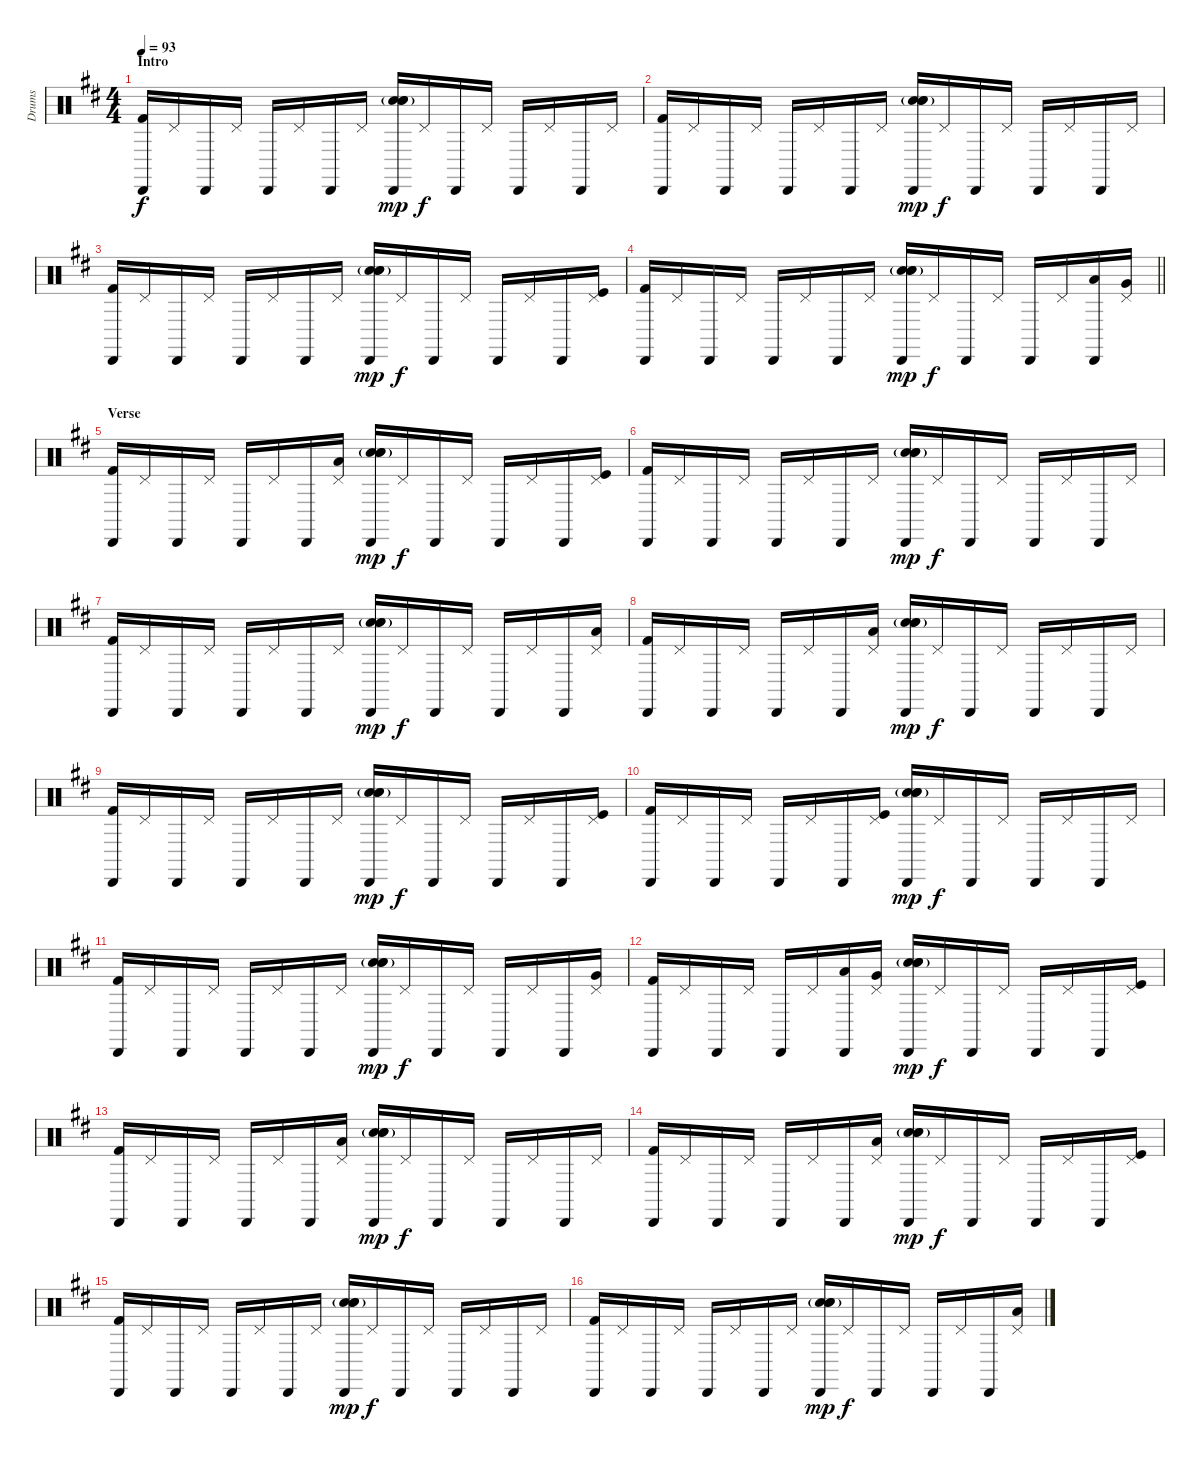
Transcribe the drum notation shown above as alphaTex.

\track ("Drums" "Drums") {instrument percussion}
\staff {score}
\articulation defaults
\ts (4 4)
\section ("" "Intro")
\tempo 93
\clef neutral
\ks d
("Cabasa (hit)" "Kick (hit) 2").16{dy f} "Pedal Hi-Hat (hit)".16 "Cabasa (hit)".16 "Pedal Hi-Hat (hit)".16 "Cabasa (hit)".16 "Pedal Hi-Hat (hit)".16 "Cabasa (hit)".16 "Pedal Hi-Hat (hit)".16 ("Cabasa (hit)" "Snare (hit) 2"{g} "Electric Snare (hit)"{g} "Electric Snare (hit)").16{dy mp} "Pedal Hi-Hat (hit)".16{dy f} "Cabasa (hit)".16 "Pedal Hi-Hat (hit)".16 "Cabasa (hit)".16 "Pedal Hi-Hat (hit)".16 "Cabasa (hit)".16 "Pedal Hi-Hat (hit)".16 |
("Cabasa (hit)" "Kick (hit) 2").16 "Pedal Hi-Hat (hit)".16 "Cabasa (hit)".16 "Pedal Hi-Hat (hit)".16 "Cabasa (hit)".16 "Pedal Hi-Hat (hit)".16 "Cabasa (hit)".16 "Pedal Hi-Hat (hit)".16 ("Cabasa (hit)" "Snare (hit) 2"{g} "Electric Snare (hit)"{g} "Electric Snare (hit)").16{dy mp} "Pedal Hi-Hat (hit)".16{dy f} "Cabasa (hit)".16 "Pedal Hi-Hat (hit)".16 "Cabasa (hit)".16 "Pedal Hi-Hat (hit)".16 "Cabasa (hit)".16 "Pedal Hi-Hat (hit)".16 |
("Cabasa (hit)" "Kick (hit) 2").16 "Pedal Hi-Hat (hit)".16 "Cabasa (hit)".16 "Pedal Hi-Hat (hit)".16 "Cabasa (hit)".16 "Pedal Hi-Hat (hit)".16 "Cabasa (hit)".16 "Pedal Hi-Hat (hit)".16 ("Cabasa (hit)" "Snare (hit) 2"{g} "Electric Snare (hit)"{g} "Electric Snare (hit)").16{dy mp} "Pedal Hi-Hat (hit)".16{dy f} "Cabasa (hit)".16 "Pedal Hi-Hat (hit)".16 "Cabasa (hit)".16 "Pedal Hi-Hat (hit)".16 "Cabasa (hit)".16 ("Pedal Hi-Hat (hit)" "Kick (hit)").16 |
\barLineRight lightlight
("Cabasa (hit)" "Kick (hit) 2").16 "Pedal Hi-Hat (hit)".16 "Cabasa (hit)".16 "Pedal Hi-Hat (hit)".16 "Cabasa (hit)".16 "Pedal Hi-Hat (hit)".16 "Cabasa (hit)".16 "Pedal Hi-Hat (hit)".16 ("Cabasa (hit)" "Snare (hit) 2"{g} "Electric Snare (hit)"{g} "Electric Snare (hit)").16{dy mp} "Pedal Hi-Hat (hit)".16{dy f} "Cabasa (hit)".16 "Pedal Hi-Hat (hit)".16 "Cabasa (hit)".16 "Pedal Hi-Hat (hit)".16 ("Cabasa (hit)" "Low Tom (hit)").16 ("Pedal Hi-Hat (hit)" "Very Low Tom (hit)").16 |
\section ("" "Verse")
("Cabasa (hit)" "Kick (hit) 2").16 "Pedal Hi-Hat (hit)".16 "Cabasa (hit)".16 "Pedal Hi-Hat (hit)".16 "Cabasa (hit)".16 "Pedal Hi-Hat (hit)".16 "Cabasa (hit)".16 ("Pedal Hi-Hat (hit)" "Low Tom (hit)").16 ("Cabasa (hit)" "Snare (hit) 2"{g} "Electric Snare (hit)"{g} "Electric Snare (hit)").16{dy mp} "Pedal Hi-Hat (hit)".16{dy f} "Cabasa (hit)".16 "Pedal Hi-Hat (hit)".16 "Cabasa (hit)".16 "Pedal Hi-Hat (hit)".16 "Cabasa (hit)".16 ("Pedal Hi-Hat (hit)" "Kick (hit)").16 |
("Cabasa (hit)" "Kick (hit) 2").16 "Pedal Hi-Hat (hit)".16 "Cabasa (hit)".16 "Pedal Hi-Hat (hit)".16 "Cabasa (hit)".16 "Pedal Hi-Hat (hit)".16 "Cabasa (hit)".16 "Pedal Hi-Hat (hit)".16 ("Cabasa (hit)" "Snare (hit) 2"{g} "Electric Snare (hit)"{g} "Electric Snare (hit)").16{dy mp} "Pedal Hi-Hat (hit)".16{dy f} "Cabasa (hit)".16 "Pedal Hi-Hat (hit)".16 "Cabasa (hit)".16 "Pedal Hi-Hat (hit)".16 "Cabasa (hit)".16 "Pedal Hi-Hat (hit)".16 |
("Cabasa (hit)" "Kick (hit) 2").16 "Pedal Hi-Hat (hit)".16 "Cabasa (hit)".16 "Pedal Hi-Hat (hit)".16 "Cabasa (hit)".16 "Pedal Hi-Hat (hit)".16 "Cabasa (hit)".16 "Pedal Hi-Hat (hit)".16 ("Cabasa (hit)" "Snare (hit) 2"{g} "Electric Snare (hit)"{g} "Electric Snare (hit)").16{dy mp} "Pedal Hi-Hat (hit)".16{dy f} "Cabasa (hit)".16 "Pedal Hi-Hat (hit)".16 "Cabasa (hit)".16 "Pedal Hi-Hat (hit)".16 "Cabasa (hit)".16 ("Pedal Hi-Hat (hit)" "Low Tom (hit)").16 |
("Cabasa (hit)" "Kick (hit) 2").16 "Pedal Hi-Hat (hit)".16 "Cabasa (hit)".16 "Pedal Hi-Hat (hit)".16 "Cabasa (hit)".16 "Pedal Hi-Hat (hit)".16 "Cabasa (hit)".16 ("Pedal Hi-Hat (hit)" "Low Tom (hit)").16 ("Cabasa (hit)" "Snare (hit) 2"{g} "Electric Snare (hit)"{g} "Electric Snare (hit)").16{dy mp} "Pedal Hi-Hat (hit)".16{dy f} "Cabasa (hit)".16 "Pedal Hi-Hat (hit)".16 "Cabasa (hit)".16 "Pedal Hi-Hat (hit)".16 "Cabasa (hit)".16 "Pedal Hi-Hat (hit)".16 |
("Cabasa (hit)" "Kick (hit) 2").16 "Pedal Hi-Hat (hit)".16 "Cabasa (hit)".16 "Pedal Hi-Hat (hit)".16 "Cabasa (hit)".16 "Pedal Hi-Hat (hit)".16 "Cabasa (hit)".16 "Pedal Hi-Hat (hit)".16 ("Cabasa (hit)" "Snare (hit) 2"{g} "Electric Snare (hit)"{g} "Electric Snare (hit)").16{dy mp} "Pedal Hi-Hat (hit)".16{dy f} "Cabasa (hit)".16 "Pedal Hi-Hat (hit)".16 "Cabasa (hit)".16 "Pedal Hi-Hat (hit)".16 "Cabasa (hit)".16 ("Pedal Hi-Hat (hit)" "Kick (hit)").16 |
("Cabasa (hit)" "Kick (hit) 2").16 "Pedal Hi-Hat (hit)".16 "Cabasa (hit)".16 "Pedal Hi-Hat (hit)".16 "Cabasa (hit)".16 "Pedal Hi-Hat (hit)".16 "Cabasa (hit)".16 ("Pedal Hi-Hat (hit)" "Kick (hit)").16 ("Cabasa (hit)" "Snare (hit) 2"{g} "Electric Snare (hit)"{g} "Electric Snare (hit)").16{dy mp} "Pedal Hi-Hat (hit)".16{dy f} "Cabasa (hit)".16 "Pedal Hi-Hat (hit)".16 "Cabasa (hit)".16 "Pedal Hi-Hat (hit)".16 "Cabasa (hit)".16 "Pedal Hi-Hat (hit)".16 |
("Cabasa (hit)" "Kick (hit) 2").16 "Pedal Hi-Hat (hit)".16 "Cabasa (hit)".16 "Pedal Hi-Hat (hit)".16 "Cabasa (hit)".16 "Pedal Hi-Hat (hit)".16 "Cabasa (hit)".16 "Pedal Hi-Hat (hit)".16 ("Cabasa (hit)" "Snare (hit) 2"{g} "Electric Snare (hit)"{g} "Electric Snare (hit)").16{dy mp} "Pedal Hi-Hat (hit)".16{dy f} "Cabasa (hit)".16 "Pedal Hi-Hat (hit)".16 "Cabasa (hit)".16 "Pedal Hi-Hat (hit)".16 "Cabasa (hit)".16 ("Pedal Hi-Hat (hit)" "Very Low Tom (hit)").16 |
("Cabasa (hit)" "Kick (hit) 2").16 "Pedal Hi-Hat (hit)".16 "Cabasa (hit)".16 "Pedal Hi-Hat (hit)".16 "Cabasa (hit)".16 "Pedal Hi-Hat (hit)".16 ("Cabasa (hit)" "Low Tom (hit)").16 ("Pedal Hi-Hat (hit)" "Very Low Tom (hit)").16 ("Cabasa (hit)" "Snare (hit) 2"{g} "Electric Snare (hit)"{g} "Electric Snare (hit)").16{dy mp} "Pedal Hi-Hat (hit)".16{dy f} "Cabasa (hit)".16 "Pedal Hi-Hat (hit)".16 "Cabasa (hit)".16 "Pedal Hi-Hat (hit)".16 "Cabasa (hit)".16 ("Pedal Hi-Hat (hit)" "Kick (hit)").16 |
("Cabasa (hit)" "Kick (hit) 2").16 "Pedal Hi-Hat (hit)".16 "Cabasa (hit)".16 "Pedal Hi-Hat (hit)".16 "Cabasa (hit)".16 "Pedal Hi-Hat (hit)".16 "Cabasa (hit)".16 ("Pedal Hi-Hat (hit)" "Low Tom (hit)").16 ("Cabasa (hit)" "Snare (hit) 2"{g} "Electric Snare (hit)"{g} "Electric Snare (hit)").16{dy mp} "Pedal Hi-Hat (hit)".16{dy f} "Cabasa (hit)".16 "Pedal Hi-Hat (hit)".16 "Cabasa (hit)".16 "Pedal Hi-Hat (hit)".16 "Cabasa (hit)".16 "Pedal Hi-Hat (hit)".16 |
("Cabasa (hit)" "Kick (hit) 2").16 "Pedal Hi-Hat (hit)".16 "Cabasa (hit)".16 "Pedal Hi-Hat (hit)".16 "Cabasa (hit)".16 "Pedal Hi-Hat (hit)".16 "Cabasa (hit)".16 ("Pedal Hi-Hat (hit)" "Low Tom (hit)").16 ("Cabasa (hit)" "Snare (hit) 2"{g} "Electric Snare (hit)"{g} "Electric Snare (hit)").16{dy mp} "Pedal Hi-Hat (hit)".16{dy f} "Cabasa (hit)".16 "Pedal Hi-Hat (hit)".16 "Cabasa (hit)".16 "Pedal Hi-Hat (hit)".16 "Cabasa (hit)".16 ("Pedal Hi-Hat (hit)" "Kick (hit)").16 |
("Cabasa (hit)" "Kick (hit) 2").16 "Pedal Hi-Hat (hit)".16 "Cabasa (hit)".16 "Pedal Hi-Hat (hit)".16 "Cabasa (hit)".16 "Pedal Hi-Hat (hit)".16 "Cabasa (hit)".16 "Pedal Hi-Hat (hit)".16 ("Cabasa (hit)" "Snare (hit) 2"{g} "Electric Snare (hit)"{g} "Electric Snare (hit)").16{dy mp} "Pedal Hi-Hat (hit)".16{dy f} "Cabasa (hit)".16 "Pedal Hi-Hat (hit)".16 "Cabasa (hit)".16 "Pedal Hi-Hat (hit)".16 "Cabasa (hit)".16 "Pedal Hi-Hat (hit)".16 |
("Cabasa (hit)" "Kick (hit) 2").16 "Pedal Hi-Hat (hit)".16 "Cabasa (hit)".16 "Pedal Hi-Hat (hit)".16 "Cabasa (hit)".16 "Pedal Hi-Hat (hit)".16 "Cabasa (hit)".16 "Pedal Hi-Hat (hit)".16 ("Cabasa (hit)" "Snare (hit) 2"{g} "Electric Snare (hit)"{g} "Electric Snare (hit)").16{dy mp} "Pedal Hi-Hat (hit)".16{dy f} "Cabasa (hit)".16 "Pedal Hi-Hat (hit)".16 "Cabasa (hit)".16 "Pedal Hi-Hat (hit)".16 "Cabasa (hit)".16 ("Pedal Hi-Hat (hit)" "Low Tom (hit)").16
